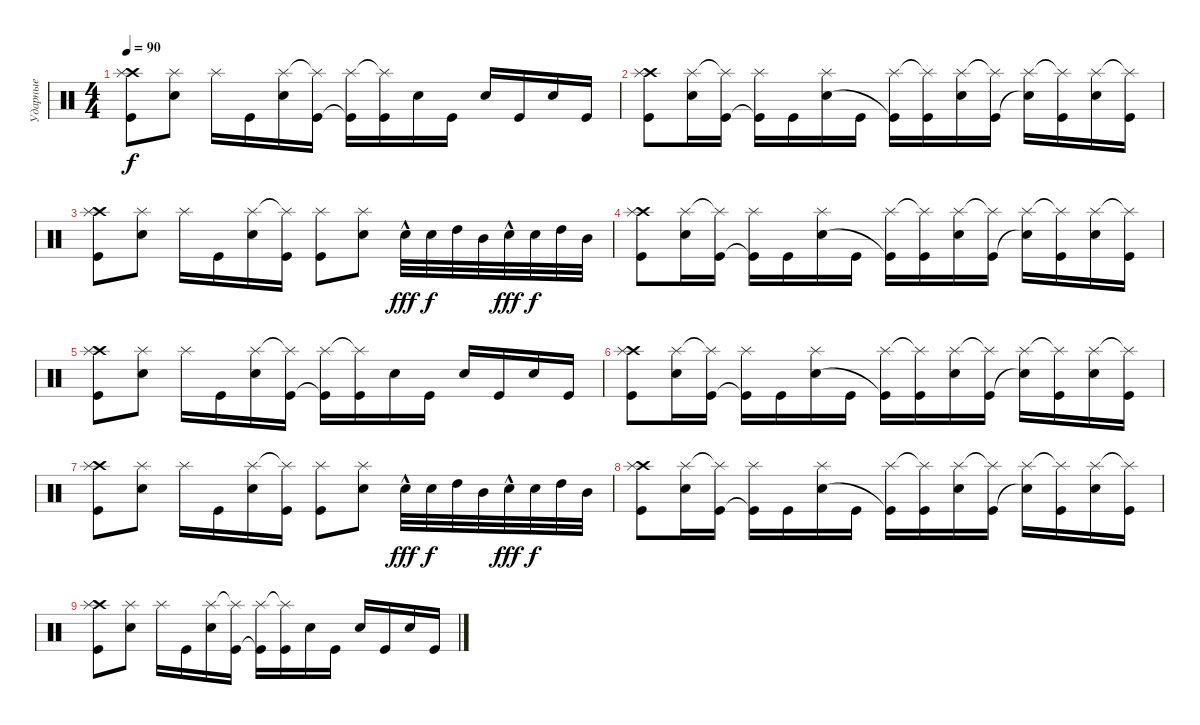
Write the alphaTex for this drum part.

\track ("Ударные" "Ударные") {instrument percussion}
\staff {score}
\articulation defaults
\ts (4 4)
\tempo 90
\clef neutral
\ks c
("Crash high (hit)" "Splash (hit)" "Kick (hit)").8{dy f} ("Splash (hit)" "Electric Snare (hit)").8 "Splash (hit)".16 "Kick (hit)".16 ("Splash (hit)" "Electric Snare (hit)").16 ("Splash (hit)"{t} "Kick (hit)").16 ("Splash (hit)" "Kick (hit)"{t}).16 ("Splash (hit)"{t} "Kick (hit)").16 "Electric Snare (hit)".16 "Kick (hit)".16 "Electric Snare (hit)".16 "Kick (hit)".16 "Electric Snare (hit)".16 "Kick (hit)".16 |
("Crash high (hit)" "Splash (hit)" "Kick (hit)").8 ("Splash (hit)" "Electric Snare (hit)").16 ("Splash (hit)"{t} "Kick (hit)").16 ("Splash (hit)" "Kick (hit)"{t}).16 "Kick (hit)".16 ("Splash (hit)" "Electric Snare (hit)").16 "Kick (hit)".16 ("Splash (hit)" "Kick (hit)"{t}).16 ("Splash (hit)"{t} "Kick (hit)").16 ("Splash (hit)" "Electric Snare (hit)").16 ("Splash (hit)"{t} "Kick (hit)").16 ("Splash (hit)" "Snare (hit)"{t}).16 ("Splash (hit)"{t} "Kick (hit)").16 ("Splash (hit)" "Electric Snare (hit)").16 ("Splash (hit)"{t} "Kick (hit)").16 |
("Crash high (hit)" "Splash (hit)" "Kick (hit)").8 ("Splash (hit)" "Electric Snare (hit)").8 "Splash (hit)".16 "Kick (hit)".16 ("Splash (hit)" "Electric Snare (hit)").16 ("Splash (hit)"{t} "Kick (hit)").16 ("Splash (hit)" "Kick (hit)").8 ("Splash (hit)" "Electric Snare (hit)").8 "Electric Snare (hit)"{hac}.32{dy fff} "Electric Snare (hit)".32{dy f} "High Tom (hit)".32 "Mid Tom (hit)".32 "Electric Snare (hit)"{hac}.32{dy fff} "Electric Snare (hit)".32{dy f} "High Tom (hit)".32 "Mid Tom (hit)".32 |
("Crash high (hit)" "Splash (hit)" "Kick (hit)").8 ("Splash (hit)" "Electric Snare (hit)").16 ("Splash (hit)"{t} "Kick (hit)").16 ("Splash (hit)" "Kick (hit)"{t}).16 "Kick (hit)".16 ("Splash (hit)" "Electric Snare (hit)").16 "Kick (hit)".16 ("Splash (hit)" "Kick (hit)"{t}).16 ("Splash (hit)"{t} "Kick (hit)").16 ("Splash (hit)" "Electric Snare (hit)").16 ("Splash (hit)"{t} "Kick (hit)").16 ("Splash (hit)" "Snare (hit)"{t}).16 ("Splash (hit)"{t} "Kick (hit)").16 ("Splash (hit)" "Electric Snare (hit)").16 ("Splash (hit)"{t} "Kick (hit)").16 |
("Crash high (hit)" "Splash (hit)" "Kick (hit)").8 ("Splash (hit)" "Electric Snare (hit)").8 "Splash (hit)".16 "Kick (hit)".16 ("Splash (hit)" "Electric Snare (hit)").16 ("Splash (hit)"{t} "Kick (hit)").16 ("Splash (hit)" "Kick (hit)"{t}).16 ("Splash (hit)"{t} "Kick (hit)").16 "Electric Snare (hit)".16 "Kick (hit)".16 "Electric Snare (hit)".16 "Kick (hit)".16 "Electric Snare (hit)".16 "Kick (hit)".16 |
("Crash high (hit)" "Splash (hit)" "Kick (hit)").8 ("Splash (hit)" "Electric Snare (hit)").16 ("Splash (hit)"{t} "Kick (hit)").16 ("Splash (hit)" "Kick (hit)"{t}).16 "Kick (hit)".16 ("Splash (hit)" "Electric Snare (hit)").16 "Kick (hit)".16 ("Splash (hit)" "Kick (hit)"{t}).16 ("Splash (hit)"{t} "Kick (hit)").16 ("Splash (hit)" "Electric Snare (hit)").16 ("Splash (hit)"{t} "Kick (hit)").16 ("Splash (hit)" "Snare (hit)"{t}).16 ("Splash (hit)"{t} "Kick (hit)").16 ("Splash (hit)" "Electric Snare (hit)").16 ("Splash (hit)"{t} "Kick (hit)").16 |
("Crash high (hit)" "Splash (hit)" "Kick (hit)").8 ("Splash (hit)" "Electric Snare (hit)").8 "Splash (hit)".16 "Kick (hit)".16 ("Splash (hit)" "Electric Snare (hit)").16 ("Splash (hit)"{t} "Kick (hit)").16 ("Splash (hit)" "Kick (hit)").8 ("Splash (hit)" "Electric Snare (hit)").8 "Electric Snare (hit)"{hac}.32{dy fff} "Electric Snare (hit)".32{dy f} "High Tom (hit)".32 "Mid Tom (hit)".32 "Electric Snare (hit)"{hac}.32{dy fff} "Electric Snare (hit)".32{dy f} "High Tom (hit)".32 "Mid Tom (hit)".32 |
("Crash high (hit)" "Splash (hit)" "Kick (hit)").8 ("Splash (hit)" "Electric Snare (hit)").16 ("Splash (hit)"{t} "Kick (hit)").16 ("Splash (hit)" "Kick (hit)"{t}).16 "Kick (hit)".16 ("Splash (hit)" "Electric Snare (hit)").16 "Kick (hit)".16 ("Splash (hit)" "Kick (hit)"{t}).16 ("Splash (hit)"{t} "Kick (hit)").16 ("Splash (hit)" "Electric Snare (hit)").16 ("Splash (hit)"{t} "Kick (hit)").16 ("Splash (hit)" "Snare (hit)"{t}).16 ("Splash (hit)"{t} "Kick (hit)").16 ("Splash (hit)" "Electric Snare (hit)").16 ("Splash (hit)"{t} "Kick (hit)").16 |
("Crash high (hit)" "Splash (hit)" "Kick (hit)").8 ("Splash (hit)" "Electric Snare (hit)").8 "Splash (hit)".16 "Kick (hit)".16 ("Splash (hit)" "Electric Snare (hit)").16 ("Splash (hit)"{t} "Kick (hit)").16 ("Splash (hit)" "Kick (hit)"{t}).16 ("Splash (hit)"{t} "Kick (hit)").16 "Electric Snare (hit)".16 "Kick (hit)".16 "Electric Snare (hit)".16 "Kick (hit)".16 "Electric Snare (hit)".16 "Kick (hit)".16
